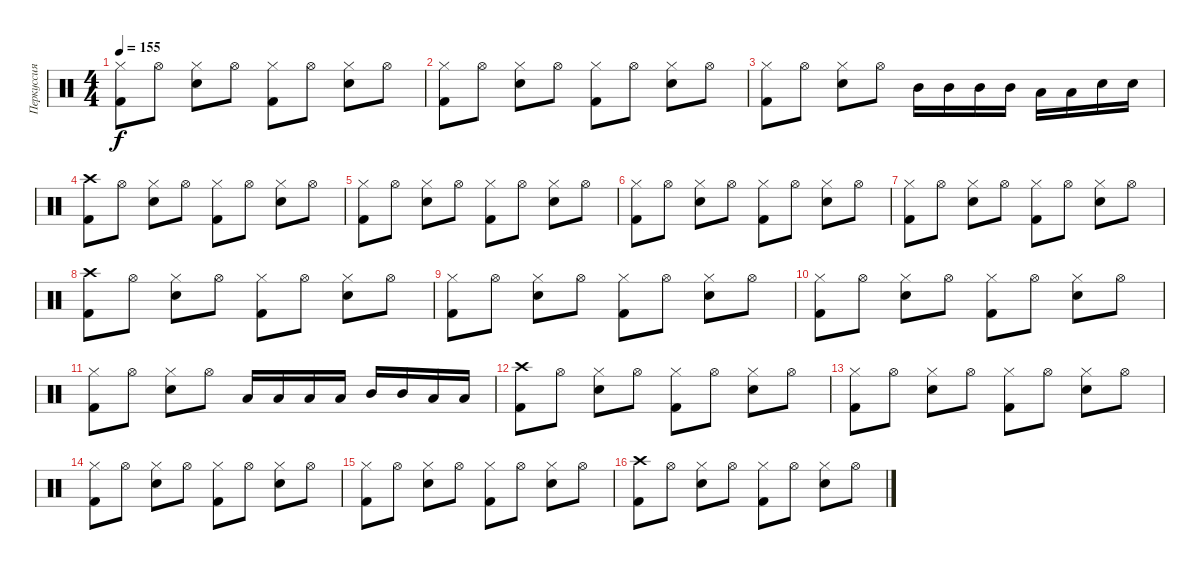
\track ("Перкуссия" "Перкуссия") {instrument percussion}
\staff {score}
\articulation defaults
\ts (4 4)
\tempo 155
\clef neutral
\ks c
("Hi-Hat (closed)" "Kick (hit) 2").8{dy f} "Hi-Hat (open)".8 ("Hi-Hat (closed)" "Snare (hit) 2").8 "Hi-Hat (open)".8 ("Hi-Hat (closed)" "Kick (hit) 2").8 "Hi-Hat (open)".8 ("Hi-Hat (closed)" "Snare (hit) 2").8 "Hi-Hat (open)".8 |
("Hi-Hat (closed)" "Kick (hit) 2").8 "Hi-Hat (open)".8 ("Hi-Hat (closed)" "Snare (hit) 2").8 "Hi-Hat (open)".8 ("Hi-Hat (closed)" "Kick (hit) 2").8 "Hi-Hat (open)".8 ("Hi-Hat (closed)" "Snare (hit) 2").8 "Hi-Hat (open)".8 |
("Hi-Hat (closed)" "Kick (hit) 2").8 "Hi-Hat (open)".8 ("Hi-Hat (closed)" "Snare (hit) 2").8 "Hi-Hat (open)".8 "Mid Tom (hit)".16 "Mid Tom (hit)".16 "Mid Tom (hit)".16 "Mid Tom (hit)".16 "Low Tom (hit)".16 "Low Tom (hit)".16 "Snare (hit) 2".16 "Snare (hit) 2".16 |
("Crash high (hit)" "Kick (hit) 2").8 "Hi-Hat (open)".8 ("Hi-Hat (closed)" "Snare (hit) 2").8 "Hi-Hat (open)".8 ("Hi-Hat (closed)" "Kick (hit) 2").8 "Hi-Hat (open)".8 ("Hi-Hat (closed)" "Snare (hit) 2").8 "Hi-Hat (open)".8 |
("Hi-Hat (closed)" "Kick (hit) 2").8 "Hi-Hat (open)".8 ("Hi-Hat (closed)" "Snare (hit) 2").8 "Hi-Hat (open)".8 ("Hi-Hat (closed)" "Kick (hit) 2").8 "Hi-Hat (open)".8 ("Hi-Hat (closed)" "Snare (hit) 2").8 "Hi-Hat (open)".8 |
("Hi-Hat (closed)" "Kick (hit) 2").8 "Hi-Hat (open)".8 ("Hi-Hat (closed)" "Snare (hit) 2").8 "Hi-Hat (open)".8 ("Hi-Hat (closed)" "Kick (hit) 2").8 "Hi-Hat (open)".8 ("Hi-Hat (closed)" "Snare (hit) 2").8 "Hi-Hat (open)".8 |
("Hi-Hat (closed)" "Kick (hit) 2").8 "Hi-Hat (open)".8 ("Hi-Hat (closed)" "Snare (hit) 2").8 "Hi-Hat (open)".8 ("Hi-Hat (closed)" "Kick (hit) 2").8 "Hi-Hat (open)".8 ("Hi-Hat (closed)" "Snare (hit) 2").8 "Hi-Hat (open)".8 |
("Crash high (hit)" "Kick (hit) 2").8 "Hi-Hat (open)".8 ("Hi-Hat (closed)" "Snare (hit) 2").8 "Hi-Hat (open)".8 ("Hi-Hat (closed)" "Kick (hit) 2").8 "Hi-Hat (open)".8 ("Hi-Hat (closed)" "Snare (hit) 2").8 "Hi-Hat (open)".8 |
("Hi-Hat (closed)" "Kick (hit) 2").8 "Hi-Hat (open)".8 ("Hi-Hat (closed)" "Snare (hit) 2").8 "Hi-Hat (open)".8 ("Hi-Hat (closed)" "Kick (hit) 2").8 "Hi-Hat (open)".8 ("Hi-Hat (closed)" "Snare (hit) 2").8 "Hi-Hat (open)".8 |
("Hi-Hat (closed)" "Kick (hit) 2").8 "Hi-Hat (open)".8 ("Hi-Hat (closed)" "Snare (hit) 2").8 "Hi-Hat (open)".8 ("Hi-Hat (closed)" "Kick (hit) 2").8 "Hi-Hat (open)".8 ("Hi-Hat (closed)" "Snare (hit) 2").8 "Hi-Hat (open)".8 |
("Hi-Hat (closed)" "Kick (hit) 2").8 "Hi-Hat (open)".8 ("Hi-Hat (closed)" "Snare (hit) 2").8 "Hi-Hat (open)".8 "Low Tom (hit)".16 "Low Tom (hit)".16 "Low Tom (hit)".16 "Low Tom (hit)".16 "Mid Tom (hit)".16 "Mid Tom (hit)".16 "Low Tom (hit)".16 "Low Tom (hit)".16 |
("Crash high (hit)" "Kick (hit) 2").8 "Hi-Hat (open)".8 ("Hi-Hat (closed)" "Snare (hit) 2").8 "Hi-Hat (open)".8 ("Hi-Hat (closed)" "Kick (hit) 2").8 "Hi-Hat (open)".8 ("Hi-Hat (closed)" "Snare (hit) 2").8 "Hi-Hat (open)".8 |
("Hi-Hat (closed)" "Kick (hit) 2").8 "Hi-Hat (open)".8 ("Hi-Hat (closed)" "Snare (hit) 2").8 "Hi-Hat (open)".8 ("Hi-Hat (closed)" "Kick (hit) 2").8 "Hi-Hat (open)".8 ("Hi-Hat (closed)" "Snare (hit) 2").8 "Hi-Hat (open)".8 |
("Hi-Hat (closed)" "Kick (hit) 2").8 "Hi-Hat (open)".8 ("Hi-Hat (closed)" "Snare (hit) 2").8 "Hi-Hat (open)".8 ("Hi-Hat (closed)" "Kick (hit) 2").8 "Hi-Hat (open)".8 ("Hi-Hat (closed)" "Snare (hit) 2").8 "Hi-Hat (open)".8 |
("Hi-Hat (closed)" "Kick (hit) 2").8 "Hi-Hat (open)".8 ("Hi-Hat (closed)" "Snare (hit) 2").8 "Hi-Hat (open)".8 ("Hi-Hat (closed)" "Kick (hit) 2").8 "Hi-Hat (open)".8 ("Hi-Hat (closed)" "Snare (hit) 2").8 "Hi-Hat (open)".8 |
("Crash high (hit)" "Kick (hit) 2").8 "Hi-Hat (open)".8 ("Hi-Hat (closed)" "Snare (hit) 2").8 "Hi-Hat (open)".8 ("Hi-Hat (closed)" "Kick (hit) 2").8 "Hi-Hat (open)".8 ("Hi-Hat (closed)" "Snare (hit) 2").8 "Hi-Hat (open)".8
